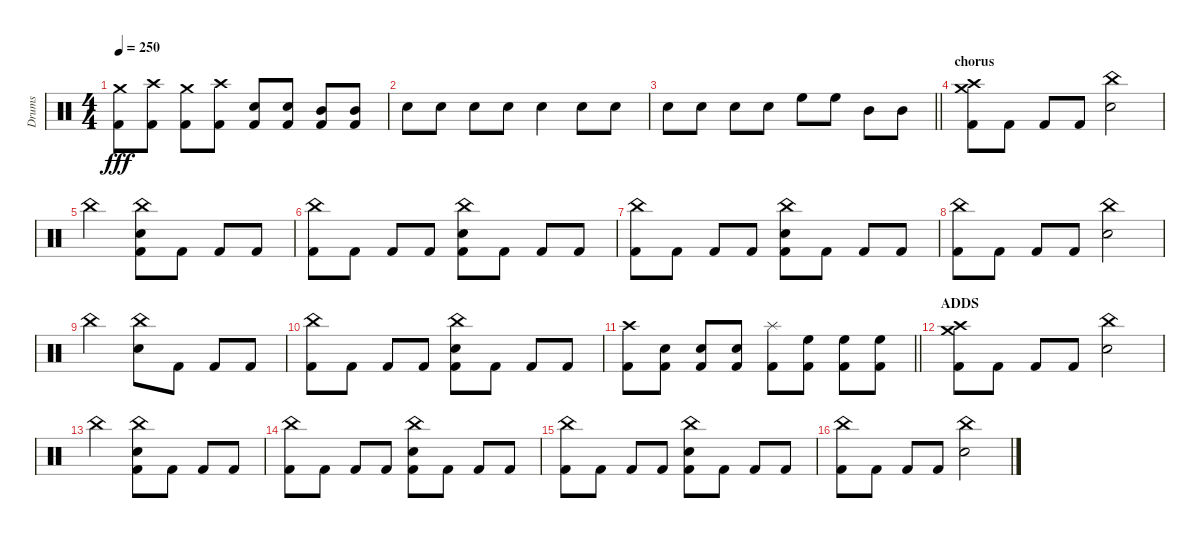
\track ("Drums" "Drums") {solo instrument percussion}
\staff {score}
\articulation defaults
\ts (4 4)
\tempo 250
\clef neutral
\ks c
("Crash medium (hit)" "Kick (hit) 2").8{dy fff} ("Crash high (hit)" "Kick (hit) 2").8 ("Crash medium (hit)" "Kick (hit) 2").8 ("Crash high (hit)" "Kick (hit) 2").8 ("Snare (hit) 2" "Kick (hit) 2").8 ("Snare (hit) 2" "Kick (hit) 2").8 ("Mid Tom (hit)" "Kick (hit) 2").8 ("Mid Tom (hit)" "Kick (hit) 2").8 |
"Snare (hit) 2".8 "Snare (hit) 2".8 "Snare (hit) 2".8 "Snare (hit) 2".8 "Snare (hit) 2".4 "Snare (hit) 2".8 "Snare (hit) 2".8 |
\barLineRight lightlight "Snare (hit) 2".8 "Snare (hit) 2".8 "Snare (hit) 2".8 "Snare (hit) 2".8 "High Floor Tom (hit)".8 "High Floor Tom (hit)".8 "Mid Tom (hit)".8 "Mid Tom (hit)".8
|
\section ("" "chorus")
("Crash high (hit)" "Crash medium (hit)" "Kick (hit) 2").8 "Kick (hit) 2".8 "Kick (hit) 2".8 "Kick (hit) 2".8 ("China (hit)" "Snare (hit) 2").2 |
"China (hit)".2 ("China (hit)" "Snare (hit) 2" "Kick (hit) 2").8 "Kick (hit) 2".8 "Kick (hit) 2".8 "Kick (hit) 2".8 |
("China (hit)" "Kick (hit) 2").8 "Kick (hit) 2".8 "Kick (hit) 2".8 "Kick (hit) 2".8 ("China (hit)" "Snare (hit) 2" "Kick (hit) 2").8 "Kick (hit) 2".8 "Kick (hit) 2".8 "Kick (hit) 2".8 |
("China (hit)" "Kick (hit) 2").8 "Kick (hit) 2".8 "Kick (hit) 2".8 "Kick (hit) 2".8 ("China (hit)" "Snare (hit) 2" "Kick (hit) 2").8 "Kick (hit) 2".8 "Kick (hit) 2".8 "Kick (hit) 2".8 |
("China (hit)" "Kick (hit) 2").8 "Kick (hit) 2".8 "Kick (hit) 2".8 "Kick (hit) 2".8 ("China (hit)" "Snare (hit) 2").2 |
"China (hit)".2 ("China (hit)" "Snare (hit) 2").8 "Kick (hit) 2".8 "Kick (hit) 2".8 "Kick (hit) 2".8 |
("China (hit)" "Kick (hit) 2").8 "Kick (hit) 2".8 "Kick (hit) 2".8 "Kick (hit) 2".8 ("China (hit)" "Snare (hit) 2" "Kick (hit) 2").8 "Kick (hit) 2".8 "Kick (hit) 2".8 "Kick (hit) 2".8 |
\barLineRight lightlight
("Crash high (hit)" "Kick (hit) 2").8 ("Snare (hit) 2" "Kick (hit) 2").8 ("Snare (hit) 2" "Kick (hit) 2").8 ("Snare (hit) 2" "Kick (hit) 2").8 ("Splash (hit)" "Kick (hit) 2").8 ("High Floor Tom (hit)" "Kick (hit) 2").8 ("High Floor Tom (hit)" "Kick (hit) 2").8 ("High Floor Tom (hit)" "Kick (hit) 2").8 |
\section ("" "ADDS")
("Crash high (hit)" "Crash medium (hit)" "Kick (hit) 2").8 "Kick (hit) 2".8 "Kick (hit) 2".8 "Kick (hit) 2".8 ("China (hit)" "Snare (hit) 2").2 |
"China (hit)".2 ("China (hit)" "Snare (hit) 2" "Kick (hit) 2").8 "Kick (hit) 2".8 "Kick (hit) 2".8 "Kick (hit) 2".8 |
("China (hit)" "Kick (hit) 2").8 "Kick (hit) 2".8 "Kick (hit) 2".8 "Kick (hit) 2".8 ("China (hit)" "Snare (hit) 2" "Kick (hit) 2").8 "Kick (hit) 2".8 "Kick (hit) 2".8 "Kick (hit) 2".8 |
("China (hit)" "Kick (hit) 2").8 "Kick (hit) 2".8 "Kick (hit) 2".8 "Kick (hit) 2".8 ("China (hit)" "Snare (hit) 2" "Kick (hit) 2").8 "Kick (hit) 2".8 "Kick (hit) 2".8 "Kick (hit) 2".8 |
("China (hit)" "Kick (hit) 2").8 "Kick (hit) 2".8 "Kick (hit) 2".8 "Kick (hit) 2".8 ("China (hit)" "Snare (hit) 2").2
